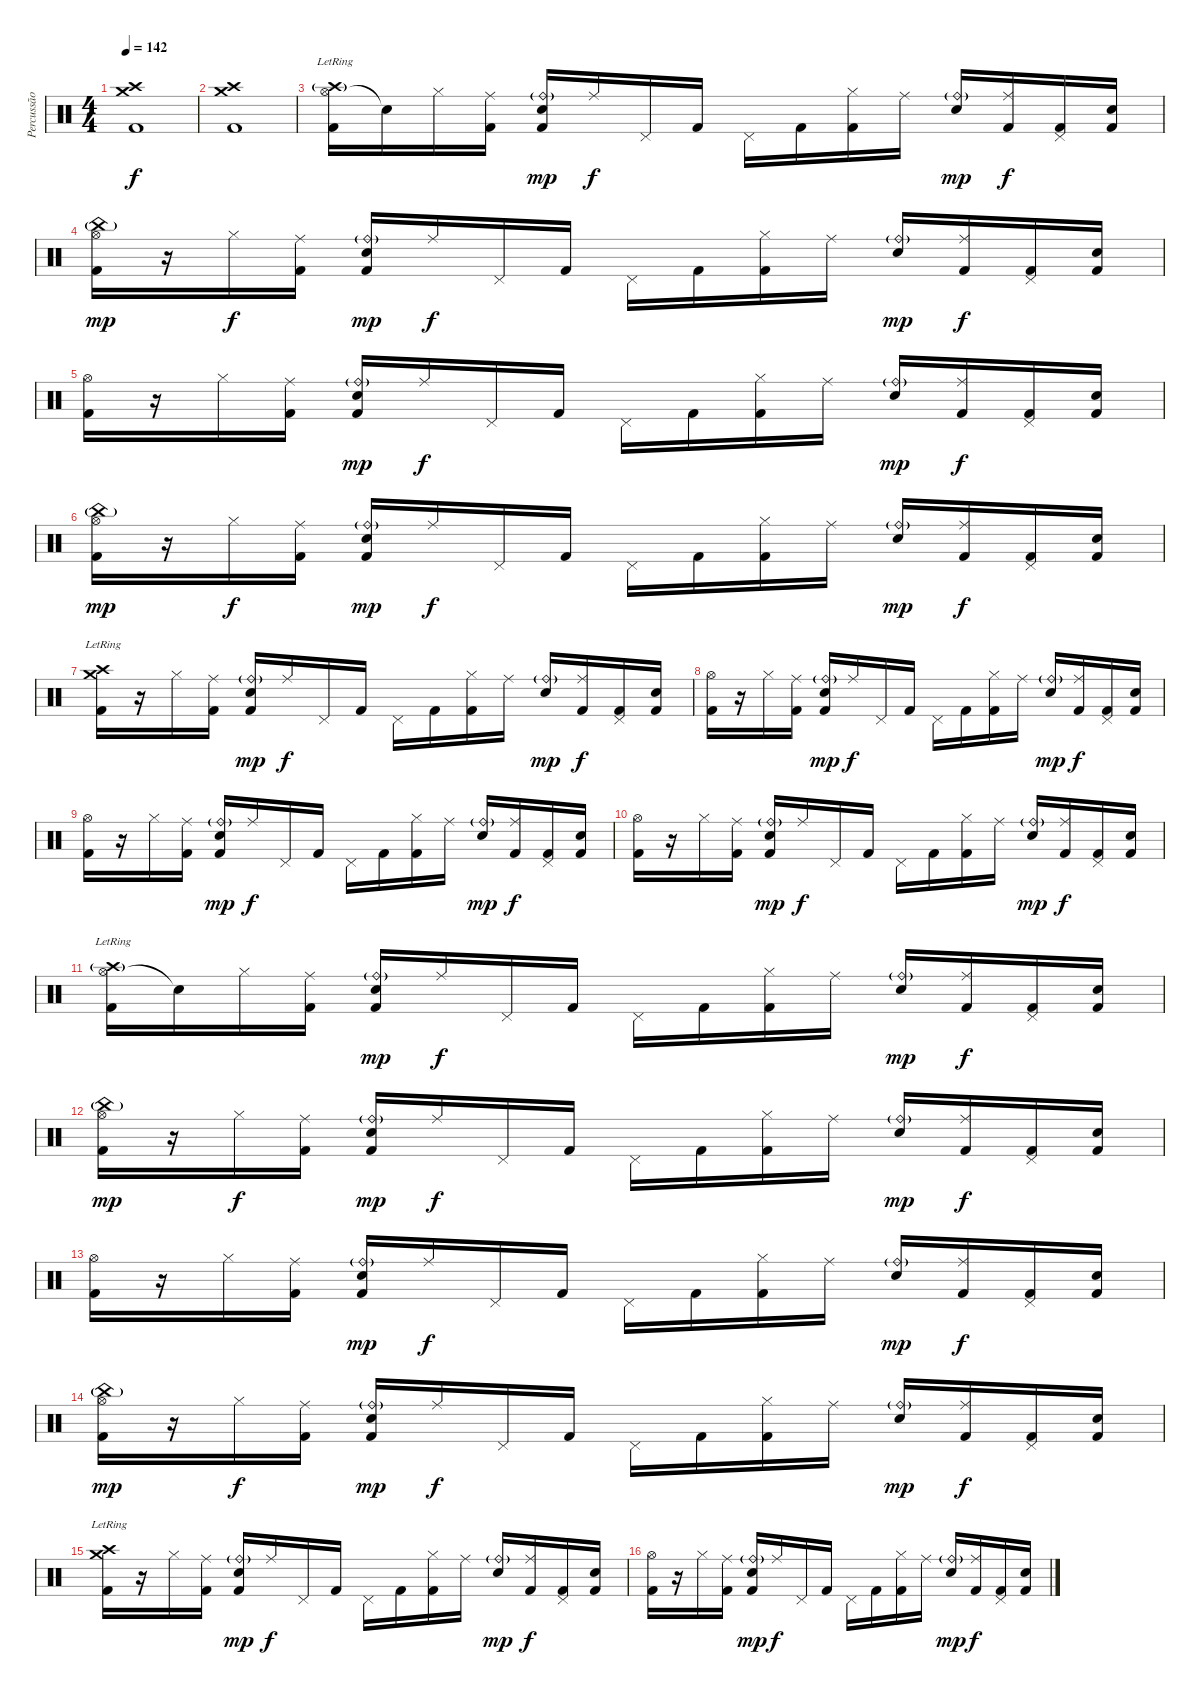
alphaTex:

\track ("Percussão" "Percussão") {instrument percussion}
\staff {score}
\articulation defaults
\ts (4 4)
\tempo 142
\clef neutral
\ks c
("Crash medium (hit)" "Crash high (hit)" "Kick (hit) 2").1{dy f} |
("Crash medium (hit)" "Crash high (hit)" "Kick (hit) 2").1 |
("Hi-Hat (open)" "Crash high (hit)"{g lr} "Kick (hit) 2").16 "Snare (hit)"{t}.16 "Hi-Hat (closed)".16 ("Ride (middle)" "Kick (hit) 2").16 ("Ride (bell)"{g} "Snare (hit) 2" "Kick (hit) 2").16{dy mp} "Ride (middle)".16{dy f} "Pedal Hi-Hat (hit)".16 "Kick (hit) 2".16 "Pedal Hi-Hat (hit)".16 "Kick (hit) 2".16 ("Hi-Hat (closed)" "Kick (hit) 2").16 "Ride (middle)".16 ("Ride (bell)"{g} "Snare (hit) 2").16{dy mp} ("Ride (middle)" "Kick (hit) 2").16{dy f} ("Pedal Hi-Hat (hit)" "Kick (hit) 2").16 ("Snare (hit) 2" "Kick (hit) 2").16 |
("Hi-Hat (open)" "China (hit)"{g} "Kick (hit) 2").16{dy mp} r.16 "Hi-Hat (closed)".16{dy f} ("Ride (middle)" "Kick (hit) 2").16 ("Ride (bell)"{g} "Snare (hit) 2" "Kick (hit) 2").16{dy mp} "Ride (middle)".16{dy f} "Pedal Hi-Hat (hit)".16 "Kick (hit) 2".16 "Pedal Hi-Hat (hit)".16 "Kick (hit) 2".16 ("Hi-Hat (closed)" "Kick (hit) 2").16 "Ride (middle)".16 ("Ride (bell)"{g} "Snare (hit) 2").16{dy mp} ("Ride (middle)" "Kick (hit) 2").16{dy f} ("Pedal Hi-Hat (hit)" "Kick (hit) 2").16 ("Snare (hit) 2" "Kick (hit) 2").16 |
("Hi-Hat (open)" "Kick (hit) 2").16 r.16 "Hi-Hat (closed)".16 ("Ride (middle)" "Kick (hit) 2").16 ("Ride (bell)"{g} "Snare (hit) 2" "Kick (hit) 2").16{dy mp} "Ride (middle)".16{dy f} "Pedal Hi-Hat (hit)".16 "Kick (hit) 2".16 "Pedal Hi-Hat (hit)".16 "Kick (hit) 2".16 ("Hi-Hat (closed)" "Kick (hit) 2").16 "Ride (middle)".16 ("Ride (bell)"{g} "Snare (hit) 2").16{dy mp} ("Ride (middle)" "Kick (hit) 2").16{dy f} ("Pedal Hi-Hat (hit)" "Kick (hit) 2").16 ("Snare (hit) 2" "Kick (hit) 2").16 |
("Hi-Hat (open)" "China (hit)"{g} "Kick (hit) 2").16{dy mp} r.16 "Hi-Hat (closed)".16{dy f} ("Ride (middle)" "Kick (hit) 2").16 ("Ride (bell)"{g} "Snare (hit) 2" "Kick (hit) 2").16{dy mp} "Ride (middle)".16{dy f} "Pedal Hi-Hat (hit)".16 "Kick (hit) 2".16 "Pedal Hi-Hat (hit)".16 "Kick (hit) 2".16 ("Hi-Hat (closed)" "Kick (hit) 2").16 "Ride (middle)".16 ("Ride (bell)"{g} "Snare (hit) 2").16{dy mp} ("Ride (middle)" "Kick (hit) 2").16{dy f} ("Pedal Hi-Hat (hit)" "Kick (hit) 2").16 ("Snare (hit) 2" "Kick (hit) 2").16 |
("Crash medium (hit)" "Crash high (hit)"{lr} "Kick (hit) 2").16 r.16 "Hi-Hat (closed)".16 ("Ride (middle)" "Kick (hit) 2").16 ("Ride (bell)"{g} "Snare (hit) 2" "Kick (hit) 2").16{dy mp} "Ride (middle)".16{dy f} "Pedal Hi-Hat (hit)".16 "Kick (hit) 2".16 "Pedal Hi-Hat (hit)".16 "Kick (hit) 2".16 ("Hi-Hat (closed)" "Kick (hit) 2").16 "Ride (middle)".16 ("Ride (bell)"{g} "Snare (hit) 2").16{dy mp} ("Ride (middle)" "Kick (hit) 2").16{dy f} ("Pedal Hi-Hat (hit)" "Kick (hit) 2").16 ("Snare (hit) 2" "Kick (hit) 2").16 |
("Hi-Hat (open)" "Kick (hit) 2").16 r.16 "Hi-Hat (closed)".16 ("Ride (middle)" "Kick (hit) 2").16 ("Ride (bell)"{g} "Snare (hit) 2" "Kick (hit) 2").16{dy mp} "Ride (middle)".16{dy f} "Pedal Hi-Hat (hit)".16 "Kick (hit) 2".16 "Pedal Hi-Hat (hit)".16 "Kick (hit) 2".16 ("Hi-Hat (closed)" "Kick (hit) 2").16 "Ride (middle)".16 ("Ride (bell)"{g} "Snare (hit) 2").16{dy mp} ("Ride (middle)" "Kick (hit) 2").16{dy f} ("Pedal Hi-Hat (hit)" "Kick (hit) 2").16 ("Snare (hit) 2" "Kick (hit) 2").16 |
("Hi-Hat (open)" "Kick (hit) 2").16 r.16 "Hi-Hat (closed)".16 ("Ride (middle)" "Kick (hit) 2").16 ("Ride (bell)"{g} "Snare (hit) 2" "Kick (hit) 2").16{dy mp} "Ride (middle)".16{dy f} "Pedal Hi-Hat (hit)".16 "Kick (hit) 2".16 "Pedal Hi-Hat (hit)".16 "Kick (hit) 2".16 ("Hi-Hat (closed)" "Kick (hit) 2").16 "Ride (middle)".16 ("Ride (bell)"{g} "Snare (hit) 2").16{dy mp} ("Ride (middle)" "Kick (hit) 2").16{dy f} ("Pedal Hi-Hat (hit)" "Kick (hit) 2").16 ("Snare (hit) 2" "Kick (hit) 2").16 |
("Hi-Hat (open)" "Kick (hit) 2").16 r.16 "Hi-Hat (closed)".16 ("Ride (middle)" "Kick (hit) 2").16 ("Ride (bell)"{g} "Snare (hit) 2" "Kick (hit) 2").16{dy mp} "Ride (middle)".16{dy f} "Pedal Hi-Hat (hit)".16 "Kick (hit) 2".16 "Pedal Hi-Hat (hit)".16 "Kick (hit) 2".16 ("Hi-Hat (closed)" "Kick (hit) 2").16 "Ride (middle)".16 ("Ride (bell)"{g} "Snare (hit) 2").16{dy mp} ("Ride (middle)" "Kick (hit) 2").16{dy f} ("Pedal Hi-Hat (hit)" "Kick (hit) 2").16 ("Snare (hit) 2" "Kick (hit) 2").16 |
("Hi-Hat (open)" "Crash high (hit)"{g lr} "Kick (hit) 2").16 "Snare (hit)"{t}.16 "Hi-Hat (closed)".16 ("Ride (middle)" "Kick (hit) 2").16 ("Ride (bell)"{g} "Snare (hit) 2" "Kick (hit) 2").16{dy mp} "Ride (middle)".16{dy f} "Pedal Hi-Hat (hit)".16 "Kick (hit) 2".16 "Pedal Hi-Hat (hit)".16 "Kick (hit) 2".16 ("Hi-Hat (closed)" "Kick (hit) 2").16 "Ride (middle)".16 ("Ride (bell)"{g} "Snare (hit) 2").16{dy mp} ("Ride (middle)" "Kick (hit) 2").16{dy f} ("Pedal Hi-Hat (hit)" "Kick (hit) 2").16 ("Snare (hit) 2" "Kick (hit) 2").16 |
("Hi-Hat (open)" "China (hit)"{g} "Kick (hit) 2").16{dy mp} r.16 "Hi-Hat (closed)".16{dy f} ("Ride (middle)" "Kick (hit) 2").16 ("Ride (bell)"{g} "Snare (hit) 2" "Kick (hit) 2").16{dy mp} "Ride (middle)".16{dy f} "Pedal Hi-Hat (hit)".16 "Kick (hit) 2".16 "Pedal Hi-Hat (hit)".16 "Kick (hit) 2".16 ("Hi-Hat (closed)" "Kick (hit) 2").16 "Ride (middle)".16 ("Ride (bell)"{g} "Snare (hit) 2").16{dy mp} ("Ride (middle)" "Kick (hit) 2").16{dy f} ("Pedal Hi-Hat (hit)" "Kick (hit) 2").16 ("Snare (hit) 2" "Kick (hit) 2").16 |
("Hi-Hat (open)" "Kick (hit) 2").16 r.16 "Hi-Hat (closed)".16 ("Ride (middle)" "Kick (hit) 2").16 ("Ride (bell)"{g} "Snare (hit) 2" "Kick (hit) 2").16{dy mp} "Ride (middle)".16{dy f} "Pedal Hi-Hat (hit)".16 "Kick (hit) 2".16 "Pedal Hi-Hat (hit)".16 "Kick (hit) 2".16 ("Hi-Hat (closed)" "Kick (hit) 2").16 "Ride (middle)".16 ("Ride (bell)"{g} "Snare (hit) 2").16{dy mp} ("Ride (middle)" "Kick (hit) 2").16{dy f} ("Pedal Hi-Hat (hit)" "Kick (hit) 2").16 ("Snare (hit) 2" "Kick (hit) 2").16 |
("Hi-Hat (open)" "China (hit)"{g} "Kick (hit) 2").16{dy mp} r.16 "Hi-Hat (closed)".16{dy f} ("Ride (middle)" "Kick (hit) 2").16 ("Ride (bell)"{g} "Snare (hit) 2" "Kick (hit) 2").16{dy mp} "Ride (middle)".16{dy f} "Pedal Hi-Hat (hit)".16 "Kick (hit) 2".16 "Pedal Hi-Hat (hit)".16 "Kick (hit) 2".16 ("Hi-Hat (closed)" "Kick (hit) 2").16 "Ride (middle)".16 ("Ride (bell)"{g} "Snare (hit) 2").16{dy mp} ("Ride (middle)" "Kick (hit) 2").16{dy f} ("Pedal Hi-Hat (hit)" "Kick (hit) 2").16 ("Snare (hit) 2" "Kick (hit) 2").16 |
("Crash medium (hit)" "Crash high (hit)"{lr} "Kick (hit) 2").16 r.16 "Hi-Hat (closed)".16 ("Ride (middle)" "Kick (hit) 2").16 ("Ride (bell)"{g} "Snare (hit) 2" "Kick (hit) 2").16{dy mp} "Ride (middle)".16{dy f} "Pedal Hi-Hat (hit)".16 "Kick (hit) 2".16 "Pedal Hi-Hat (hit)".16 "Kick (hit) 2".16 ("Hi-Hat (closed)" "Kick (hit) 2").16 "Ride (middle)".16 ("Ride (bell)"{g} "Snare (hit) 2").16{dy mp} ("Ride (middle)" "Kick (hit) 2").16{dy f} ("Pedal Hi-Hat (hit)" "Kick (hit) 2").16 ("Snare (hit) 2" "Kick (hit) 2").16 |
("Hi-Hat (open)" "Kick (hit) 2").16 r.16 "Hi-Hat (closed)".16 ("Ride (middle)" "Kick (hit) 2").16 ("Ride (bell)"{g} "Snare (hit) 2" "Kick (hit) 2").16{dy mp} "Ride (middle)".16{dy f} "Pedal Hi-Hat (hit)".16 "Kick (hit) 2".16 "Pedal Hi-Hat (hit)".16 "Kick (hit) 2".16 ("Hi-Hat (closed)" "Kick (hit) 2").16 "Ride (middle)".16 ("Ride (bell)"{g} "Snare (hit) 2").16{dy mp} ("Ride (middle)" "Kick (hit) 2").16{dy f} ("Pedal Hi-Hat (hit)" "Kick (hit) 2").16 ("Snare (hit) 2" "Kick (hit) 2").16
